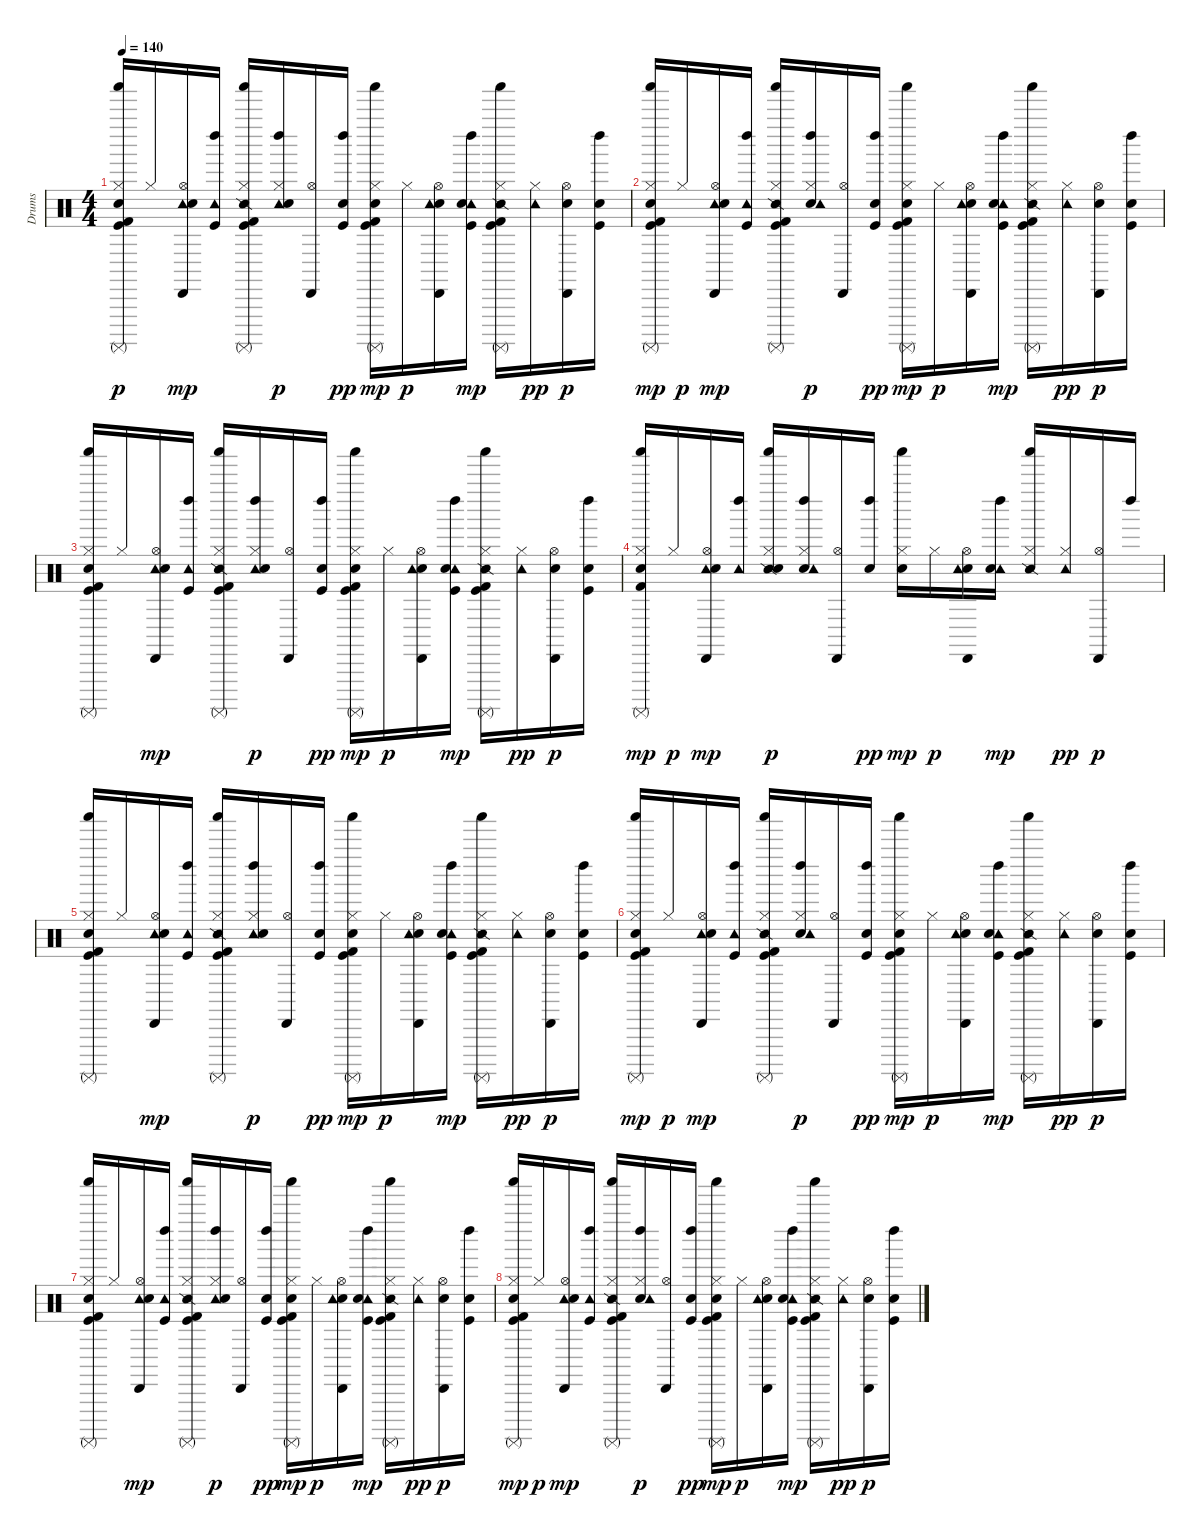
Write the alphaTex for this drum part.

\track ("Drums" "Drums") {instrument percussion}
\staff {score}
\articulation defaults
\ts (4 4)
\tempo 140
\clef neutral
\ks c
("Kick (hit)" "Kick (hit) 2" "Hi-Hat (closed)" "Shaker (hit)" "Surdo (mute)" "Snare (hit) 2").16{dy p} "Hi-Hat (closed)".16 ("Hi-Hat (open)" "Tambourine (hit)" "Cabasa (hit)" "Snare (hit) 2").16{dy mp} ("Kick (hit)" "Tambourine (hit)" "Left Maraca (hit)").16 ("Snare (side stick) 2" "Kick (hit)" "Kick (hit) 2" "Hi-Hat (closed)" "Shaker (hit)" "Surdo (mute)").16 ("Hi-Hat (closed)" "Tambourine (hit)" "Left Maraca (hit)" "Snare (hit) 2").16{dy p} ("Hi-Hat (open)" "Cabasa (hit)").16 ("Kick (hit)" "Left Maraca (hit)" "Snare (hit) 2").16{dy pp} ("Kick (hit)" "Kick (hit) 2" "Hi-Hat (closed)" "Shaker (hit)" "Surdo (mute)" "Snare (hit) 2").16{dy mp} "Hi-Hat (closed)".16{dy p} ("Hand Clap (hit)" "Hi-Hat (open)" "Tambourine (hit)" "Cabasa (hit)").16 ("Kick (hit)" "Tambourine (hit)" "Left Maraca (hit)" "Snare (hit) 2").16{dy mp} ("Snare (side stick) 2" "Kick (hit)" "Kick (hit) 2" "Hi-Hat (closed)" "Shaker (hit)" "Surdo (mute)").16 ("Hi-Hat (closed)" "Tambourine (hit)").16{dy pp} ("Hand Clap (hit)" "Hi-Hat (open)" "Cabasa (hit)").16{dy p} ("Kick (hit)" "Left Maraca (hit)" "Snare (hit) 2").16 |
("Kick (hit)" "Kick (hit) 2" "Hand Clap (hit)" "Hi-Hat (closed)" "Shaker (hit)" "Surdo (mute)").16{dy mp} "Hi-Hat (closed)".16{dy p} ("Hi-Hat (open)" "Tambourine (hit)" "Cabasa (hit)" "Snare (hit) 2").16{dy mp} ("Kick (hit)" "Tambourine (hit)" "Left Maraca (hit)").16 ("Snare (side stick) 2" "Kick (hit)" "Kick (hit) 2" "Hi-Hat (closed)" "Shaker (hit)" "Surdo (mute)").16 ("Hand Clap (hit)" "Hi-Hat (closed)" "Tambourine (hit)" "Left Maraca (hit)").16{dy p} ("Hi-Hat (open)" "Cabasa (hit)").16 ("Kick (hit)" "Left Maraca (hit)" "Snare (hit) 2").16{dy pp} ("Kick (hit)" "Kick (hit) 2" "Hi-Hat (closed)" "Shaker (hit)" "Surdo (mute)" "Snare (hit) 2").16{dy mp} "Hi-Hat (closed)".16{dy p} ("Hand Clap (hit)" "Hi-Hat (open)" "Tambourine (hit)" "Cabasa (hit)").16 ("Kick (hit)" "Tambourine (hit)" "Left Maraca (hit)" "Snare (hit) 2").16{dy mp} ("Snare (side stick) 2" "Kick (hit)" "Kick (hit) 2" "Hi-Hat (closed)" "Shaker (hit)" "Surdo (mute)").16 ("Hi-Hat (closed)" "Tambourine (hit)").16{dy pp} ("Hand Clap (hit)" "Hi-Hat (open)" "Cabasa (hit)").16{dy p} ("Kick (hit)" "Left Maraca (hit)" "Snare (hit) 2").16 |
("Kick (hit)" "Kick (hit) 2" "Hi-Hat (closed)" "Shaker (hit)" "Surdo (mute)" "Snare (hit) 2").16 "Hi-Hat (closed)".16 ("Hi-Hat (open)" "Tambourine (hit)" "Cabasa (hit)" "Snare (hit) 2").16{dy mp} ("Kick (hit)" "Tambourine (hit)" "Left Maraca (hit)").16 ("Snare (side stick) 2" "Kick (hit)" "Kick (hit) 2" "Hi-Hat (closed)" "Shaker (hit)" "Surdo (mute)").16 ("Hi-Hat (closed)" "Tambourine (hit)" "Left Maraca (hit)" "Snare (hit) 2").16{dy p} ("Hi-Hat (open)" "Cabasa (hit)").16 ("Kick (hit)" "Left Maraca (hit)" "Snare (hit) 2").16{dy pp} ("Kick (hit)" "Kick (hit) 2" "Hi-Hat (closed)" "Shaker (hit)" "Surdo (mute)" "Snare (hit) 2").16{dy mp} "Hi-Hat (closed)".16{dy p} ("Hand Clap (hit)" "Hi-Hat (open)" "Tambourine (hit)" "Cabasa (hit)").16 ("Kick (hit)" "Tambourine (hit)" "Left Maraca (hit)" "Snare (hit) 2").16{dy mp} ("Snare (side stick) 2" "Kick (hit)" "Kick (hit) 2" "Hi-Hat (closed)" "Shaker (hit)" "Surdo (mute)").16 ("Hi-Hat (closed)" "Tambourine (hit)").16{dy pp} ("Hand Clap (hit)" "Hi-Hat (open)" "Cabasa (hit)").16{dy p} ("Kick (hit)" "Left Maraca (hit)" "Snare (hit) 2").16 |
("Kick (hit) 2" "Hand Clap (hit)" "Hi-Hat (closed)" "Shaker (hit)" "Surdo (mute)").16{dy mp} "Hi-Hat (closed)".16{dy p} ("Hi-Hat (open)" "Tambourine (hit)" "Cabasa (hit)" "Snare (hit) 2").16{dy mp} ("Tambourine (hit)" "Left Maraca (hit)").16 ("Snare (side stick) 2" "Hi-Hat (closed)" "Shaker (hit)" "Snare (hit) 2").16{dy p} ("Hand Clap (hit)" "Hi-Hat (closed)" "Tambourine (hit)" "Left Maraca (hit)").16 ("Hi-Hat (open)" "Cabasa (hit)").16 ("Left Maraca (hit)" "Snare (hit) 2").16{dy pp} ("Hi-Hat (closed)" "Shaker (hit)" "Snare (hit) 2").16{dy mp} "Hi-Hat (closed)".16{dy p} ("Hand Clap (hit)" "Hi-Hat (open)" "Tambourine (hit)" "Cabasa (hit)").16 ("Tambourine (hit)" "Left Maraca (hit)" "Snare (hit) 2").16{dy mp} ("Snare (side stick) 2" "Hi-Hat (closed)" "Shaker (hit)").16 ("Hi-Hat (closed)" "Tambourine (hit)").16{dy pp} ("Hi-Hat (open)" "Cabasa (hit)").16{dy p} "Left Maraca (hit)".16 |
("Kick (hit)" "Kick (hit) 2" "Hi-Hat (closed)" "Shaker (hit)" "Surdo (mute)" "Snare (hit) 2").16 "Hi-Hat (closed)".16 ("Hi-Hat (open)" "Tambourine (hit)" "Cabasa (hit)" "Snare (hit) 2").16{dy mp} ("Kick (hit)" "Tambourine (hit)" "Left Maraca (hit)").16 ("Snare (side stick) 2" "Kick (hit)" "Kick (hit) 2" "Hi-Hat (closed)" "Shaker (hit)" "Surdo (mute)").16 ("Hi-Hat (closed)" "Tambourine (hit)" "Left Maraca (hit)" "Snare (hit) 2").16{dy p} ("Hi-Hat (open)" "Cabasa (hit)").16 ("Kick (hit)" "Left Maraca (hit)" "Snare (hit) 2").16{dy pp} ("Kick (hit)" "Kick (hit) 2" "Hi-Hat (closed)" "Shaker (hit)" "Surdo (mute)" "Snare (hit) 2").16{dy mp} "Hi-Hat (closed)".16{dy p} ("Hand Clap (hit)" "Hi-Hat (open)" "Tambourine (hit)" "Cabasa (hit)").16 ("Kick (hit)" "Tambourine (hit)" "Left Maraca (hit)" "Snare (hit) 2").16{dy mp} ("Snare (side stick) 2" "Kick (hit)" "Kick (hit) 2" "Hi-Hat (closed)" "Shaker (hit)" "Surdo (mute)").16 ("Hi-Hat (closed)" "Tambourine (hit)").16{dy pp} ("Hand Clap (hit)" "Hi-Hat (open)" "Cabasa (hit)").16{dy p} ("Kick (hit)" "Left Maraca (hit)" "Snare (hit) 2").16 |
("Kick (hit)" "Kick (hit) 2" "Hand Clap (hit)" "Hi-Hat (closed)" "Shaker (hit)" "Surdo (mute)").16{dy mp} "Hi-Hat (closed)".16{dy p} ("Hi-Hat (open)" "Tambourine (hit)" "Cabasa (hit)" "Snare (hit) 2").16{dy mp} ("Kick (hit)" "Tambourine (hit)" "Left Maraca (hit)").16 ("Snare (side stick) 2" "Kick (hit)" "Kick (hit) 2" "Hi-Hat (closed)" "Shaker (hit)" "Surdo (mute)").16 ("Hand Clap (hit)" "Hi-Hat (closed)" "Tambourine (hit)" "Left Maraca (hit)").16{dy p} ("Hi-Hat (open)" "Cabasa (hit)").16 ("Kick (hit)" "Left Maraca (hit)" "Snare (hit) 2").16{dy pp} ("Kick (hit)" "Kick (hit) 2" "Hi-Hat (closed)" "Shaker (hit)" "Surdo (mute)" "Snare (hit) 2").16{dy mp} "Hi-Hat (closed)".16{dy p} ("Hand Clap (hit)" "Hi-Hat (open)" "Tambourine (hit)" "Cabasa (hit)").16 ("Kick (hit)" "Tambourine (hit)" "Left Maraca (hit)" "Snare (hit) 2").16{dy mp} ("Snare (side stick) 2" "Kick (hit)" "Kick (hit) 2" "Hi-Hat (closed)" "Shaker (hit)" "Surdo (mute)").16 ("Hi-Hat (closed)" "Tambourine (hit)").16{dy pp} ("Hand Clap (hit)" "Hi-Hat (open)" "Cabasa (hit)").16{dy p} ("Kick (hit)" "Left Maraca (hit)" "Snare (hit) 2").16 |
("Kick (hit)" "Kick (hit) 2" "Hi-Hat (closed)" "Shaker (hit)" "Surdo (mute)" "Snare (hit) 2").16 "Hi-Hat (closed)".16 ("Hi-Hat (open)" "Tambourine (hit)" "Cabasa (hit)" "Snare (hit) 2").16{dy mp} ("Kick (hit)" "Tambourine (hit)" "Left Maraca (hit)").16 ("Snare (side stick) 2" "Kick (hit)" "Kick (hit) 2" "Hi-Hat (closed)" "Shaker (hit)" "Surdo (mute)").16 ("Hi-Hat (closed)" "Tambourine (hit)" "Left Maraca (hit)" "Snare (hit) 2").16{dy p} ("Hi-Hat (open)" "Cabasa (hit)").16 ("Kick (hit)" "Left Maraca (hit)" "Snare (hit) 2").16{dy pp} ("Kick (hit)" "Kick (hit) 2" "Hi-Hat (closed)" "Shaker (hit)" "Surdo (mute)" "Snare (hit) 2").16{dy mp} "Hi-Hat (closed)".16{dy p} ("Hand Clap (hit)" "Hi-Hat (open)" "Tambourine (hit)" "Cabasa (hit)").16 ("Kick (hit)" "Tambourine (hit)" "Left Maraca (hit)" "Snare (hit) 2").16{dy mp} ("Snare (side stick) 2" "Kick (hit)" "Kick (hit) 2" "Hi-Hat (closed)" "Shaker (hit)" "Surdo (mute)").16 ("Hi-Hat (closed)" "Tambourine (hit)").16{dy pp} ("Hand Clap (hit)" "Hi-Hat (open)" "Cabasa (hit)").16{dy p} ("Kick (hit)" "Left Maraca (hit)" "Snare (hit) 2").16 |
("Kick (hit)" "Kick (hit) 2" "Hand Clap (hit)" "Hi-Hat (closed)" "Shaker (hit)" "Surdo (mute)").16{dy mp} "Hi-Hat (closed)".16{dy p} ("Hi-Hat (open)" "Tambourine (hit)" "Cabasa (hit)" "Snare (hit) 2").16{dy mp} ("Kick (hit)" "Tambourine (hit)" "Left Maraca (hit)").16 ("Snare (side stick) 2" "Kick (hit)" "Kick (hit) 2" "Hi-Hat (closed)" "Shaker (hit)" "Surdo (mute)").16 ("Hand Clap (hit)" "Hi-Hat (closed)" "Tambourine (hit)" "Left Maraca (hit)").16{dy p} ("Hi-Hat (open)" "Cabasa (hit)").16 ("Kick (hit)" "Left Maraca (hit)" "Snare (hit) 2").16{dy pp} ("Kick (hit)" "Kick (hit) 2" "Hi-Hat (closed)" "Shaker (hit)" "Surdo (mute)" "Snare (hit) 2").16{dy mp} "Hi-Hat (closed)".16{dy p} ("Hand Clap (hit)" "Hi-Hat (open)" "Tambourine (hit)" "Cabasa (hit)").16 ("Kick (hit)" "Tambourine (hit)" "Left Maraca (hit)" "Snare (hit) 2").16{dy mp} ("Snare (side stick) 2" "Kick (hit)" "Kick (hit) 2" "Hi-Hat (closed)" "Shaker (hit)" "Surdo (mute)").16 ("Hi-Hat (closed)" "Tambourine (hit)").16{dy pp} ("Hand Clap (hit)" "Hi-Hat (open)" "Cabasa (hit)").16{dy p} ("Kick (hit)" "Left Maraca (hit)" "Snare (hit) 2").16
